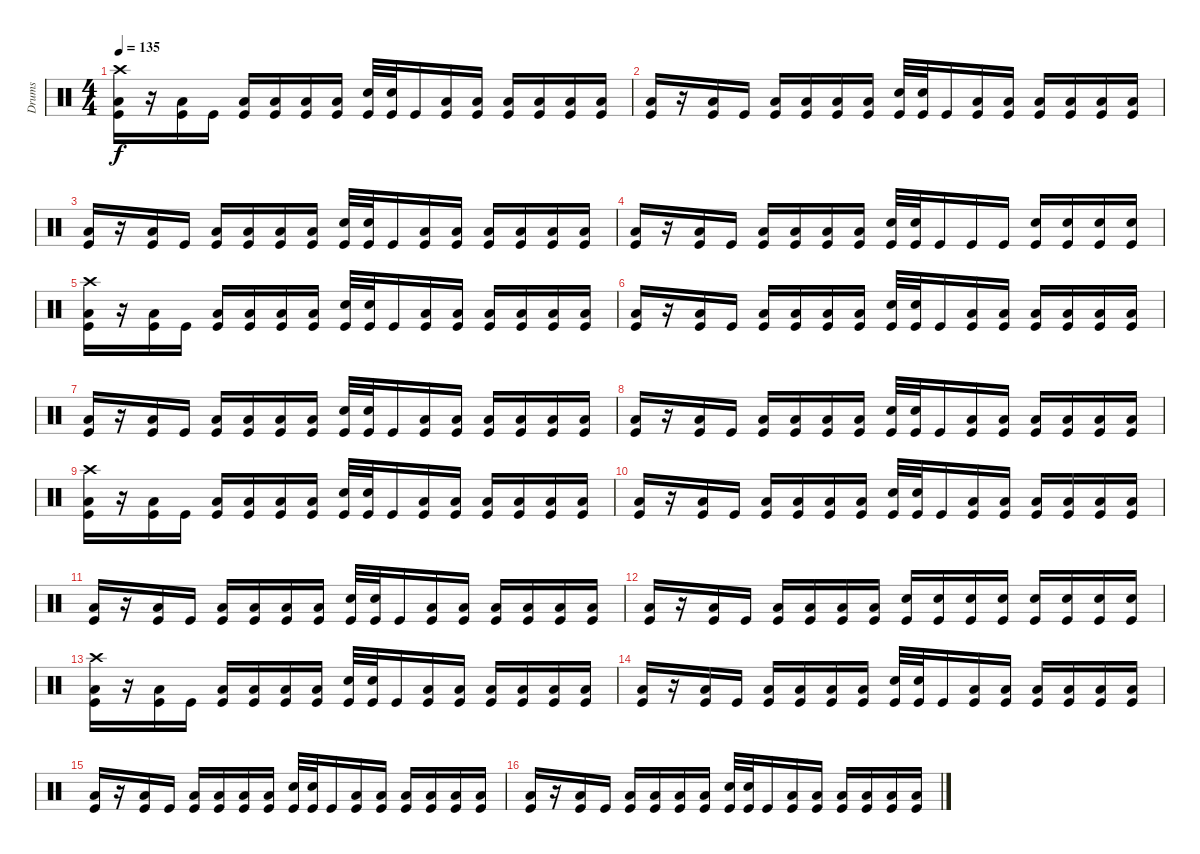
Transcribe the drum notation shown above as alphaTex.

\track ("Drums" "Drums") {instrument percussion}
\staff {score}
\articulation defaults
\ts (4 4)
\tempo 135
\clef neutral
\ks c
("Crash high (hit)" "Low Tom (hit)" "Kick (hit)").16{dy f} r.16 ("Low Tom (hit)" "Kick (hit)").16 "Kick (hit)".16 ("Low Tom (hit)" "Kick (hit)").16 ("Low Tom (hit)" "Kick (hit)").16 ("Low Tom (hit)" "Kick (hit)").16 ("Low Tom (hit)" "Kick (hit)").16 ("Electric Snare (hit)" "Kick (hit)").32 ("Electric Snare (hit)" "Kick (hit)").32 "Kick (hit)".16 ("Low Tom (hit)" "Kick (hit)").16 ("Low Tom (hit)" "Kick (hit)").16 ("Low Tom (hit)" "Kick (hit)").16 ("Low Tom (hit)" "Kick (hit)").16 ("Low Tom (hit)" "Kick (hit)").16 ("Low Tom (hit)" "Kick (hit)").16 |
("Low Tom (hit)" "Kick (hit)").16 r.16 ("Low Tom (hit)" "Kick (hit)").16 "Kick (hit)".16 ("Low Tom (hit)" "Kick (hit)").16 ("Low Tom (hit)" "Kick (hit)").16 ("Low Tom (hit)" "Kick (hit)").16 ("Low Tom (hit)" "Kick (hit)").16 ("Electric Snare (hit)" "Kick (hit)").32 ("Electric Snare (hit)" "Kick (hit)").32 "Kick (hit)".16 ("Low Tom (hit)" "Kick (hit)").16 ("Low Tom (hit)" "Kick (hit)").16 ("Low Tom (hit)" "Kick (hit)").16 ("Low Tom (hit)" "Kick (hit)").16 ("Low Tom (hit)" "Kick (hit)").16 ("Low Tom (hit)" "Kick (hit)").16 |
("Low Tom (hit)" "Kick (hit)").16 r.16 ("Low Tom (hit)" "Kick (hit)").16 "Kick (hit)".16 ("Low Tom (hit)" "Kick (hit)").16 ("Low Tom (hit)" "Kick (hit)").16 ("Low Tom (hit)" "Kick (hit)").16 ("Low Tom (hit)" "Kick (hit)").16 ("Electric Snare (hit)" "Kick (hit)").32 ("Electric Snare (hit)" "Kick (hit)").32 "Kick (hit)".16 ("Low Tom (hit)" "Kick (hit)").16 ("Low Tom (hit)" "Kick (hit)").16 ("Low Tom (hit)" "Kick (hit)").16 ("Low Tom (hit)" "Kick (hit)").16 ("Low Tom (hit)" "Kick (hit)").16 ("Low Tom (hit)" "Kick (hit)").16 |
("Low Tom (hit)" "Kick (hit)").16 r.16 ("Low Tom (hit)" "Kick (hit)").16 "Kick (hit)".16 ("Low Tom (hit)" "Kick (hit)").16 ("Low Tom (hit)" "Kick (hit)").16 ("Low Tom (hit)" "Kick (hit)").16 ("Low Tom (hit)" "Kick (hit)").16 ("Electric Snare (hit)" "Kick (hit)").32 ("Electric Snare (hit)" "Kick (hit)").32 "Kick (hit)".16 "Kick (hit)".16 "Kick (hit)".16 ("Electric Snare (hit)" "Kick (hit)").16 ("Electric Snare (hit)" "Kick (hit)").16 ("Electric Snare (hit)" "Kick (hit)").16 ("Electric Snare (hit)" "Kick (hit)").16 |
("Crash high (hit)" "Low Tom (hit)" "Kick (hit)").16 r.16 ("Low Tom (hit)" "Kick (hit)").16 "Kick (hit)".16 ("Low Tom (hit)" "Kick (hit)").16 ("Low Tom (hit)" "Kick (hit)").16 ("Low Tom (hit)" "Kick (hit)").16 ("Low Tom (hit)" "Kick (hit)").16 ("Electric Snare (hit)" "Kick (hit)").32 ("Electric Snare (hit)" "Kick (hit)").32 "Kick (hit)".16 ("Low Tom (hit)" "Kick (hit)").16 ("Low Tom (hit)" "Kick (hit)").16 ("Low Tom (hit)" "Kick (hit)").16 ("Low Tom (hit)" "Kick (hit)").16 ("Low Tom (hit)" "Kick (hit)").16 ("Low Tom (hit)" "Kick (hit)").16 |
("Low Tom (hit)" "Kick (hit)").16 r.16 ("Low Tom (hit)" "Kick (hit)").16 "Kick (hit)".16 ("Low Tom (hit)" "Kick (hit)").16 ("Low Tom (hit)" "Kick (hit)").16 ("Low Tom (hit)" "Kick (hit)").16 ("Low Tom (hit)" "Kick (hit)").16 ("Electric Snare (hit)" "Kick (hit)").32 ("Electric Snare (hit)" "Kick (hit)").32 "Kick (hit)".16 ("Low Tom (hit)" "Kick (hit)").16 ("Low Tom (hit)" "Kick (hit)").16 ("Low Tom (hit)" "Kick (hit)").16 ("Low Tom (hit)" "Kick (hit)").16 ("Low Tom (hit)" "Kick (hit)").16 ("Low Tom (hit)" "Kick (hit)").16 |
("Low Tom (hit)" "Kick (hit)").16 r.16 ("Low Tom (hit)" "Kick (hit)").16 "Kick (hit)".16 ("Low Tom (hit)" "Kick (hit)").16 ("Low Tom (hit)" "Kick (hit)").16 ("Low Tom (hit)" "Kick (hit)").16 ("Low Tom (hit)" "Kick (hit)").16 ("Electric Snare (hit)" "Kick (hit)").32 ("Electric Snare (hit)" "Kick (hit)").32 "Kick (hit)".16 ("Low Tom (hit)" "Kick (hit)").16 ("Low Tom (hit)" "Kick (hit)").16 ("Low Tom (hit)" "Kick (hit)").16 ("Low Tom (hit)" "Kick (hit)").16 ("Low Tom (hit)" "Kick (hit)").16 ("Low Tom (hit)" "Kick (hit)").16 |
("Low Tom (hit)" "Kick (hit)").16 r.16 ("Low Tom (hit)" "Kick (hit)").16 "Kick (hit)".16 ("Low Tom (hit)" "Kick (hit)").16 ("Low Tom (hit)" "Kick (hit)").16 ("Low Tom (hit)" "Kick (hit)").16 ("Low Tom (hit)" "Kick (hit)").16 ("Electric Snare (hit)" "Kick (hit)").32 ("Electric Snare (hit)" "Kick (hit)").32 "Kick (hit)".16 ("Low Tom (hit)" "Kick (hit)").16 ("Low Tom (hit)" "Kick (hit)").16 ("Low Tom (hit)" "Kick (hit)").16 ("Low Tom (hit)" "Kick (hit)").16 ("Low Tom (hit)" "Kick (hit)").16 ("Low Tom (hit)" "Kick (hit)").16 |
("Crash high (hit)" "Low Tom (hit)" "Kick (hit)").16 r.16 ("Low Tom (hit)" "Kick (hit)").16 "Kick (hit)".16 ("Low Tom (hit)" "Kick (hit)").16 ("Low Tom (hit)" "Kick (hit)").16 ("Low Tom (hit)" "Kick (hit)").16 ("Low Tom (hit)" "Kick (hit)").16 ("Electric Snare (hit)" "Kick (hit)").32 ("Electric Snare (hit)" "Kick (hit)").32 "Kick (hit)".16 ("Low Tom (hit)" "Kick (hit)").16 ("Low Tom (hit)" "Kick (hit)").16 ("Low Tom (hit)" "Kick (hit)").16 ("Low Tom (hit)" "Kick (hit)").16 ("Low Tom (hit)" "Kick (hit)").16 ("Low Tom (hit)" "Kick (hit)").16 |
("Low Tom (hit)" "Kick (hit)").16 r.16 ("Low Tom (hit)" "Kick (hit)").16 "Kick (hit)".16 ("Low Tom (hit)" "Kick (hit)").16 ("Low Tom (hit)" "Kick (hit)").16 ("Low Tom (hit)" "Kick (hit)").16 ("Low Tom (hit)" "Kick (hit)").16 ("Electric Snare (hit)" "Kick (hit)").32 ("Electric Snare (hit)" "Kick (hit)").32 "Kick (hit)".16 ("Low Tom (hit)" "Kick (hit)").16 ("Low Tom (hit)" "Kick (hit)").16 ("Low Tom (hit)" "Kick (hit)").16 ("Low Tom (hit)" "Kick (hit)").16 ("Low Tom (hit)" "Kick (hit)").16 ("Low Tom (hit)" "Kick (hit)").16 |
("Low Tom (hit)" "Kick (hit)").16 r.16 ("Low Tom (hit)" "Kick (hit)").16 "Kick (hit)".16 ("Low Tom (hit)" "Kick (hit)").16 ("Low Tom (hit)" "Kick (hit)").16 ("Low Tom (hit)" "Kick (hit)").16 ("Low Tom (hit)" "Kick (hit)").16 ("Electric Snare (hit)" "Kick (hit)").32 ("Electric Snare (hit)" "Kick (hit)").32 "Kick (hit)".16 ("Low Tom (hit)" "Kick (hit)").16 ("Low Tom (hit)" "Kick (hit)").16 ("Low Tom (hit)" "Kick (hit)").16 ("Low Tom (hit)" "Kick (hit)").16 ("Low Tom (hit)" "Kick (hit)").16 ("Low Tom (hit)" "Kick (hit)").16 |
("Low Tom (hit)" "Kick (hit)").16 r.16 ("Low Tom (hit)" "Kick (hit)").16 "Kick (hit)".16 ("Low Tom (hit)" "Kick (hit)").16 ("Low Tom (hit)" "Kick (hit)").16 ("Low Tom (hit)" "Kick (hit)").16 ("Low Tom (hit)" "Kick (hit)").16 ("Electric Snare (hit)" "Kick (hit)").16 ("Electric Snare (hit)" "Kick (hit)").16 ("Electric Snare (hit)" "Kick (hit)").16 ("Electric Snare (hit)" "Kick (hit)").16 ("Electric Snare (hit)" "Kick (hit)").16 ("Electric Snare (hit)" "Kick (hit)").16 ("Electric Snare (hit)" "Kick (hit)").16 ("Electric Snare (hit)" "Kick (hit)").16 |
("Crash high (hit)" "Low Tom (hit)" "Kick (hit)").16 r.16 ("Low Tom (hit)" "Kick (hit)").16 "Kick (hit)".16 ("Low Tom (hit)" "Kick (hit)").16 ("Low Tom (hit)" "Kick (hit)").16 ("Low Tom (hit)" "Kick (hit)").16 ("Low Tom (hit)" "Kick (hit)").16 ("Electric Snare (hit)" "Kick (hit)").32 ("Electric Snare (hit)" "Kick (hit)").32 "Kick (hit)".16 ("Low Tom (hit)" "Kick (hit)").16 ("Low Tom (hit)" "Kick (hit)").16 ("Low Tom (hit)" "Kick (hit)").16 ("Low Tom (hit)" "Kick (hit)").16 ("Low Tom (hit)" "Kick (hit)").16 ("Low Tom (hit)" "Kick (hit)").16 |
("Low Tom (hit)" "Kick (hit)").16 r.16 ("Low Tom (hit)" "Kick (hit)").16 "Kick (hit)".16 ("Low Tom (hit)" "Kick (hit)").16 ("Low Tom (hit)" "Kick (hit)").16 ("Low Tom (hit)" "Kick (hit)").16 ("Low Tom (hit)" "Kick (hit)").16 ("Electric Snare (hit)" "Kick (hit)").32 ("Electric Snare (hit)" "Kick (hit)").32 "Kick (hit)".16 ("Low Tom (hit)" "Kick (hit)").16 ("Low Tom (hit)" "Kick (hit)").16 ("Low Tom (hit)" "Kick (hit)").16 ("Low Tom (hit)" "Kick (hit)").16 ("Low Tom (hit)" "Kick (hit)").16 ("Low Tom (hit)" "Kick (hit)").16 |
("Low Tom (hit)" "Kick (hit)").16 r.16 ("Low Tom (hit)" "Kick (hit)").16 "Kick (hit)".16 ("Low Tom (hit)" "Kick (hit)").16 ("Low Tom (hit)" "Kick (hit)").16 ("Low Tom (hit)" "Kick (hit)").16 ("Low Tom (hit)" "Kick (hit)").16 ("Electric Snare (hit)" "Kick (hit)").32 ("Electric Snare (hit)" "Kick (hit)").32 "Kick (hit)".16 ("Low Tom (hit)" "Kick (hit)").16 ("Low Tom (hit)" "Kick (hit)").16 ("Low Tom (hit)" "Kick (hit)").16 ("Low Tom (hit)" "Kick (hit)").16 ("Low Tom (hit)" "Kick (hit)").16 ("Low Tom (hit)" "Kick (hit)").16 |
("Low Tom (hit)" "Kick (hit)").16 r.16 ("Low Tom (hit)" "Kick (hit)").16 "Kick (hit)".16 ("Low Tom (hit)" "Kick (hit)").16 ("Low Tom (hit)" "Kick (hit)").16 ("Low Tom (hit)" "Kick (hit)").16 ("Low Tom (hit)" "Kick (hit)").16 ("Electric Snare (hit)" "Kick (hit)").32 ("Electric Snare (hit)" "Kick (hit)").32 "Kick (hit)".16 ("Low Tom (hit)" "Kick (hit)").16 ("Low Tom (hit)" "Kick (hit)").16 ("Low Tom (hit)" "Kick (hit)").16 ("Low Tom (hit)" "Kick (hit)").16 ("Low Tom (hit)" "Kick (hit)").16 ("Low Tom (hit)" "Kick (hit)").16
